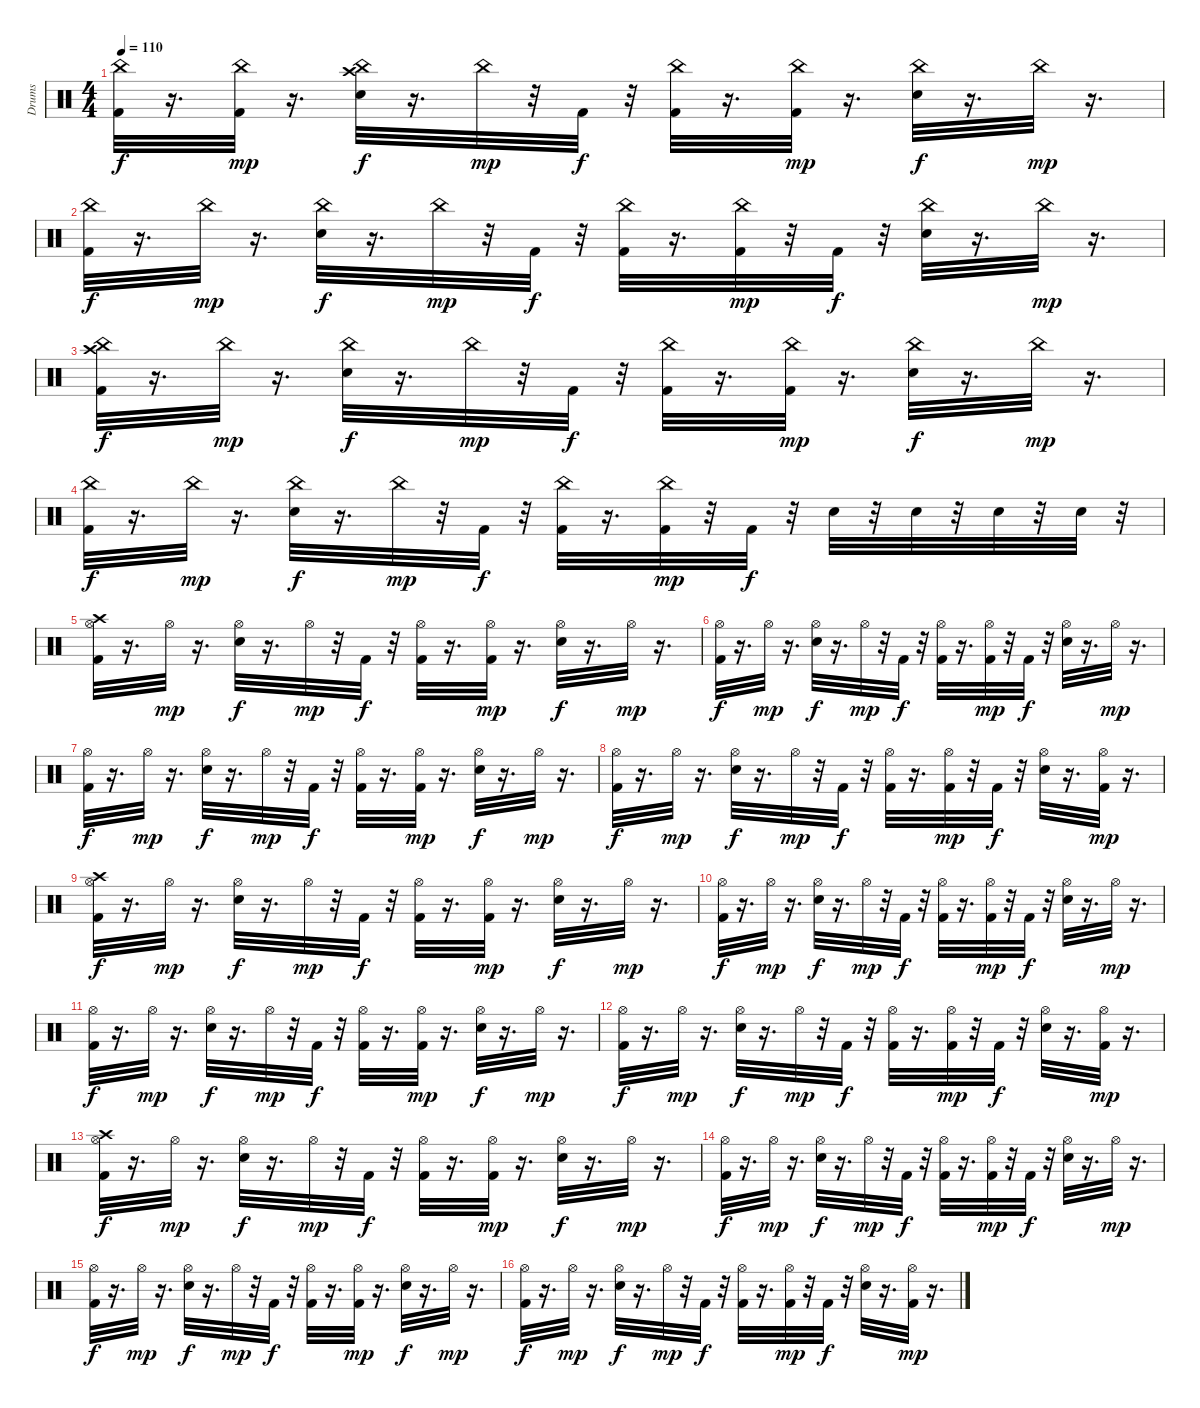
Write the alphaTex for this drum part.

\track ("Drums" "Drums") {instrument percussion}
\staff {score}
\articulation defaults
\ts (4 4)
\tempo 110
\clef neutral
\ks c
("Kick (hit) 2" "China (hit)").32{dy f} r.16{d} ("Kick (hit) 2" "China (hit)").32{dy mp} r.16{d} ("Snare (hit) 2" "Crash high (hit)" "China (hit)").32{dy f} r.16{d} "China (hit)".32{dy mp} r.32 "Kick (hit) 2".32{dy f} r.32 ("Kick (hit) 2" "China (hit)").32 r.16{d} ("Kick (hit) 2" "China (hit)").32{dy mp} r.16{d} ("Snare (hit) 2" "China (hit)").32{dy f} r.16{d} "China (hit)".32{dy mp} r.16{d} |
("Kick (hit) 2" "China (hit)").32{dy f} r.16{d} "China (hit)".32{dy mp} r.16{d} ("Snare (hit) 2" "China (hit)").32{dy f} r.16{d} "China (hit)".32{dy mp} r.32 "Kick (hit) 2".32{dy f} r.32 ("Kick (hit) 2" "China (hit)").32 r.16{d} ("Kick (hit) 2" "China (hit)").32{dy mp} r.32 "Kick (hit) 2".32{dy f} r.32 ("Snare (hit) 2" "China (hit)").32 r.16{d} "China (hit)".32{dy mp} r.16{d} |
("Kick (hit) 2" "Crash high (hit)" "China (hit)").32{dy f} r.16{d} "China (hit)".32{dy mp} r.16{d} ("Snare (hit) 2" "China (hit)").32{dy f} r.16{d} "China (hit)".32{dy mp} r.32 "Kick (hit) 2".32{dy f} r.32 ("Kick (hit) 2" "China (hit)").32 r.16{d} ("Kick (hit) 2" "China (hit)").32{dy mp} r.16{d} ("Snare (hit) 2" "China (hit)").32{dy f} r.16{d} "China (hit)".32{dy mp} r.16{d} |
("Kick (hit) 2" "China (hit)").32{dy f} r.16{d} "China (hit)".32{dy mp} r.16{d} ("Snare (hit) 2" "China (hit)").32{dy f} r.16{d} "China (hit)".32{dy mp} r.32 "Kick (hit) 2".32{dy f} r.32 ("Kick (hit) 2" "China (hit)").32 r.16{d} ("Kick (hit) 2" "China (hit)").32{dy mp} r.32 "Kick (hit) 2".32{dy f} r.32 "Snare (hit) 2".32 r.32 "Snare (hit) 2".32 r.32 "Snare (hit) 2".32 r.32 "Snare (hit) 2".32 r.32 |
("Kick (hit) 2" "Hi-Hat (open)" "Crash high (hit)").32 r.16{d} "Hi-Hat (open)".32{dy mp} r.16{d} ("Snare (hit) 2" "Hi-Hat (open)").32{dy f} r.16{d} "Hi-Hat (open)".32{dy mp} r.32 "Kick (hit) 2".32{dy f} r.32 ("Kick (hit) 2" "Hi-Hat (open)").32 r.16{d} ("Kick (hit) 2" "Hi-Hat (open)").32{dy mp} r.16{d} ("Snare (hit) 2" "Hi-Hat (open)").32{dy f} r.16{d} "Hi-Hat (open)".32{dy mp} r.16{d} |
("Kick (hit) 2" "Hi-Hat (open)").32{dy f} r.16{d} "Hi-Hat (open)".32{dy mp} r.16{d} ("Snare (hit) 2" "Hi-Hat (open)").32{dy f} r.16{d} "Hi-Hat (open)".32{dy mp} r.32 "Kick (hit) 2".32{dy f} r.32 ("Kick (hit) 2" "Hi-Hat (open)").32 r.16{d} ("Kick (hit) 2" "Hi-Hat (open)").32{dy mp} r.32 "Kick (hit) 2".32{dy f} r.32 ("Snare (hit) 2" "Hi-Hat (open)").32 r.16{d} "Hi-Hat (open)".32{dy mp} r.16{d} |
("Kick (hit) 2" "Hi-Hat (open)").32{dy f} r.16{d} "Hi-Hat (open)".32{dy mp} r.16{d} ("Snare (hit) 2" "Hi-Hat (open)").32{dy f} r.16{d} "Hi-Hat (open)".32{dy mp} r.32 "Kick (hit) 2".32{dy f} r.32 ("Kick (hit) 2" "Hi-Hat (open)").32 r.16{d} ("Kick (hit) 2" "Hi-Hat (open)").32{dy mp} r.16{d} ("Snare (hit) 2" "Hi-Hat (open)").32{dy f} r.16{d} "Hi-Hat (open)".32{dy mp} r.16{d} |
("Kick (hit) 2" "Hi-Hat (open)").32{dy f} r.16{d} "Hi-Hat (open)".32{dy mp} r.16{d} ("Snare (hit) 2" "Hi-Hat (open)").32{dy f} r.16{d} "Hi-Hat (open)".32{dy mp} r.32 "Kick (hit) 2".32{dy f} r.32 ("Kick (hit) 2" "Hi-Hat (open)").32 r.16{d} ("Kick (hit) 2" "Hi-Hat (open)").32{dy mp} r.32 "Kick (hit) 2".32{dy f} r.32 ("Snare (hit) 2" "Hi-Hat (open)").32 r.16{d} ("Kick (hit) 2" "Hi-Hat (open)").32{dy mp} r.16{d} |
("Kick (hit) 2" "Hi-Hat (open)" "Crash high (hit)").32{dy f} r.16{d} "Hi-Hat (open)".32{dy mp} r.16{d} ("Snare (hit) 2" "Hi-Hat (open)").32{dy f} r.16{d} "Hi-Hat (open)".32{dy mp} r.32 "Kick (hit) 2".32{dy f} r.32 ("Kick (hit) 2" "Hi-Hat (open)").32 r.16{d} ("Kick (hit) 2" "Hi-Hat (open)").32{dy mp} r.16{d} ("Snare (hit) 2" "Hi-Hat (open)").32{dy f} r.16{d} "Hi-Hat (open)".32{dy mp} r.16{d} |
("Kick (hit) 2" "Hi-Hat (open)").32{dy f} r.16{d} "Hi-Hat (open)".32{dy mp} r.16{d} ("Snare (hit) 2" "Hi-Hat (open)").32{dy f} r.16{d} "Hi-Hat (open)".32{dy mp} r.32 "Kick (hit) 2".32{dy f} r.32 ("Kick (hit) 2" "Hi-Hat (open)").32 r.16{d} ("Kick (hit) 2" "Hi-Hat (open)").32{dy mp} r.32 "Kick (hit) 2".32{dy f} r.32 ("Snare (hit) 2" "Hi-Hat (open)").32 r.16{d} "Hi-Hat (open)".32{dy mp} r.16{d} |
("Kick (hit) 2" "Hi-Hat (open)").32{dy f} r.16{d} "Hi-Hat (open)".32{dy mp} r.16{d} ("Snare (hit) 2" "Hi-Hat (open)").32{dy f} r.16{d} "Hi-Hat (open)".32{dy mp} r.32 "Kick (hit) 2".32{dy f} r.32 ("Kick (hit) 2" "Hi-Hat (open)").32 r.16{d} ("Kick (hit) 2" "Hi-Hat (open)").32{dy mp} r.16{d} ("Snare (hit) 2" "Hi-Hat (open)").32{dy f} r.16{d} "Hi-Hat (open)".32{dy mp} r.16{d} |
("Kick (hit) 2" "Hi-Hat (open)").32{dy f} r.16{d} "Hi-Hat (open)".32{dy mp} r.16{d} ("Snare (hit) 2" "Hi-Hat (open)").32{dy f} r.16{d} "Hi-Hat (open)".32{dy mp} r.32 "Kick (hit) 2".32{dy f} r.32 ("Kick (hit) 2" "Hi-Hat (open)").32 r.16{d} ("Kick (hit) 2" "Hi-Hat (open)").32{dy mp} r.32 "Kick (hit) 2".32{dy f} r.32 ("Snare (hit) 2" "Hi-Hat (open)").32 r.16{d} ("Kick (hit) 2" "Hi-Hat (open)").32{dy mp} r.16{d} |
("Kick (hit) 2" "Hi-Hat (open)" "Crash high (hit)").32{dy f} r.16{d} "Hi-Hat (open)".32{dy mp} r.16{d} ("Snare (hit) 2" "Hi-Hat (open)").32{dy f} r.16{d} "Hi-Hat (open)".32{dy mp} r.32 "Kick (hit) 2".32{dy f} r.32 ("Kick (hit) 2" "Hi-Hat (open)").32 r.16{d} ("Kick (hit) 2" "Hi-Hat (open)").32{dy mp} r.16{d} ("Snare (hit) 2" "Hi-Hat (open)").32{dy f} r.16{d} "Hi-Hat (open)".32{dy mp} r.16{d} |
("Kick (hit) 2" "Hi-Hat (open)").32{dy f} r.16{d} "Hi-Hat (open)".32{dy mp} r.16{d} ("Snare (hit) 2" "Hi-Hat (open)").32{dy f} r.16{d} "Hi-Hat (open)".32{dy mp} r.32 "Kick (hit) 2".32{dy f} r.32 ("Kick (hit) 2" "Hi-Hat (open)").32 r.16{d} ("Kick (hit) 2" "Hi-Hat (open)").32{dy mp} r.32 "Kick (hit) 2".32{dy f} r.32 ("Snare (hit) 2" "Hi-Hat (open)").32 r.16{d} "Hi-Hat (open)".32{dy mp} r.16{d} |
("Kick (hit) 2" "Hi-Hat (open)").32{dy f} r.16{d} "Hi-Hat (open)".32{dy mp} r.16{d} ("Snare (hit) 2" "Hi-Hat (open)").32{dy f} r.16{d} "Hi-Hat (open)".32{dy mp} r.32 "Kick (hit) 2".32{dy f} r.32 ("Kick (hit) 2" "Hi-Hat (open)").32 r.16{d} ("Kick (hit) 2" "Hi-Hat (open)").32{dy mp} r.16{d} ("Snare (hit) 2" "Hi-Hat (open)").32{dy f} r.16{d} "Hi-Hat (open)".32{dy mp} r.16{d} |
("Kick (hit) 2" "Hi-Hat (open)").32{dy f} r.16{d} "Hi-Hat (open)".32{dy mp} r.16{d} ("Snare (hit) 2" "Hi-Hat (open)").32{dy f} r.16{d} "Hi-Hat (open)".32{dy mp} r.32 "Kick (hit) 2".32{dy f} r.32 ("Kick (hit) 2" "Hi-Hat (open)").32 r.16{d} ("Kick (hit) 2" "Hi-Hat (open)").32{dy mp} r.32 "Kick (hit) 2".32{dy f} r.32 ("Snare (hit) 2" "Hi-Hat (open)").32 r.16{d} ("Kick (hit) 2" "Hi-Hat (open)").32{dy mp} r.16{d}
